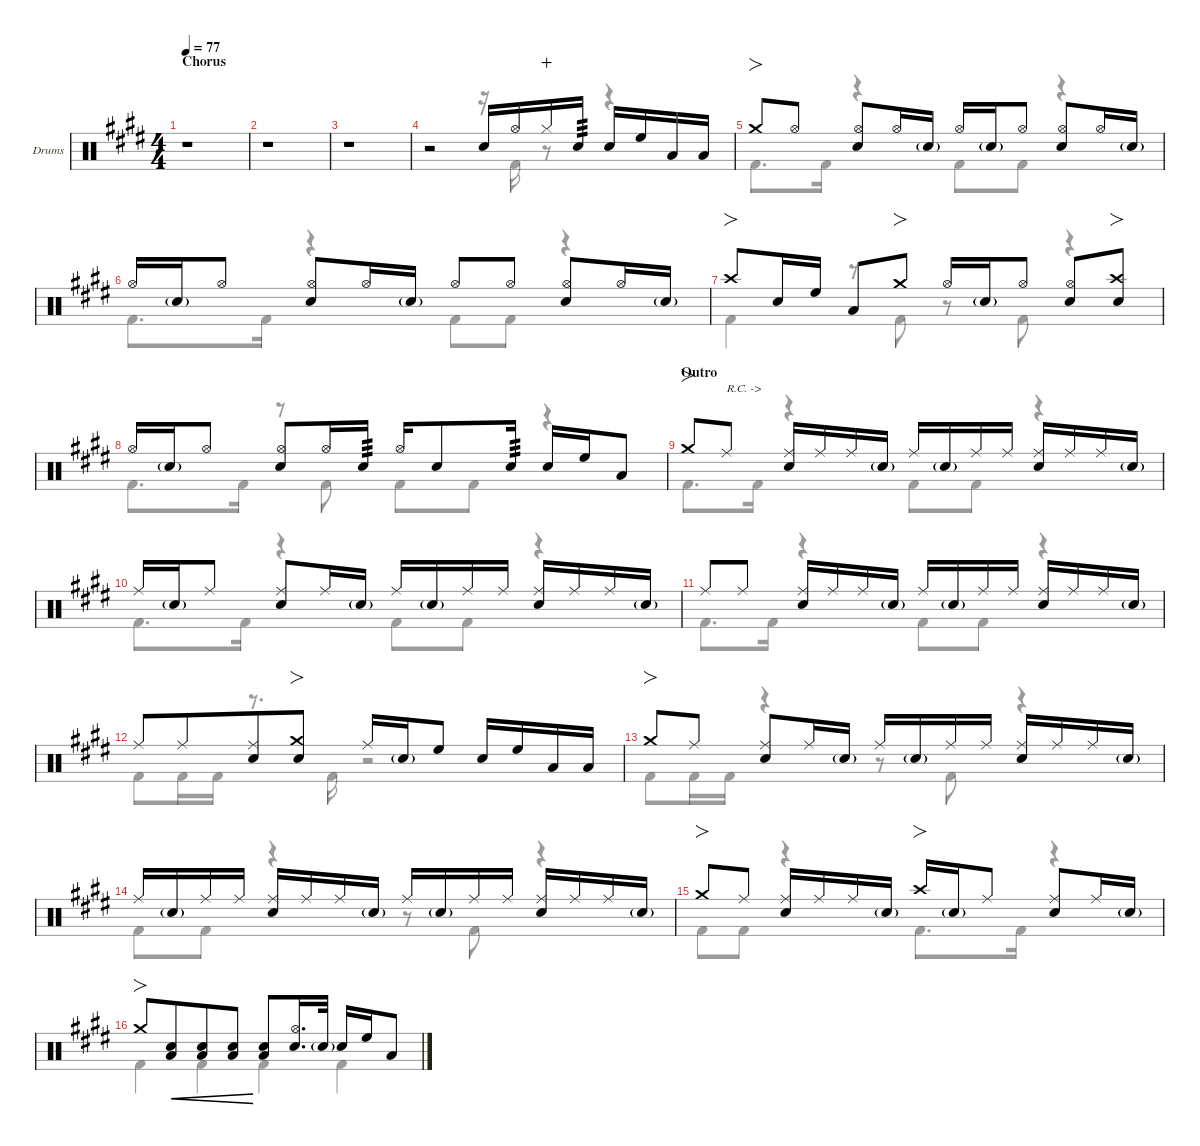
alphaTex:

\defaultSystemsLayout 4
\hideDynamics
\bracketExtendMode nobrackets
\firstSystemTrackNameOrientation horizontal
\track ("Drums" "Drums") {defaultSystemsLayout 4 instrument percussion}
\staff {score}
\articulation defaults
\voice
\ts (4 4)
\section ("" "Chorus")
\tempo 77
\clef neutral
\ks e
r.1{dy mp} |
r.1 |
r.1 |
r.2 "Snare (hit) 2"{acc forcenatural}.16{dy f} "Hi-Hat (open)"{acc forcenatural}.16 "Hi-Hat (closed)"{acc forcenatural}.16{dy mp wahc} "Snare (hit) 2"{acc forcenatural}.16{tp 3 dy mf} "Snare (hit) 2"{acc forcenatural}.16{dy f} "High Floor Tom (hit)"{acc forcenatural}.16 "Low Tom (hit)"{acc forcenatural}.16 "Low Tom (hit)"{acc forcenatural}.16 |
"Crash medium (hit)"{acc forcenatural}.8{fo} "Hi-Hat (open)"{acc forcenatural}.8{dy mf} ("Hi-Hat (open)"{acc forcenatural} "Snare (hit) 2"{acc forcenatural}).8{dy f} "Hi-Hat (open)"{acc forcenatural}.16{dy mf} "Snare (hit) 2"{g acc forcenatural}.16 "Hi-Hat (open)"{acc forcenatural}.16{dy f} "Snare (hit) 2"{g acc forcenatural}.16{dy mf} "Hi-Hat (open)"{acc forcenatural}.8 ("Hi-Hat (open)"{acc forcenatural} "Snare (hit) 2"{acc forcenatural}).8{dy f} "Hi-Hat (open)"{acc forcenatural}.16{dy mf} "Snare (hit) 2"{g acc forcenatural}.16 |
"Hi-Hat (open)"{acc forcenatural}.16{dy f} "Snare (hit) 2"{g acc forcenatural}.16{dy mf} "Hi-Hat (open)"{acc forcenatural}.8 ("Hi-Hat (open)"{acc forcenatural} "Snare (hit) 2"{acc forcenatural}).8{dy f} "Hi-Hat (open)"{acc forcenatural}.16{dy mf} "Snare (hit) 2"{g acc forcenatural}.16 "Hi-Hat (open)"{acc forcenatural}.8{dy f} "Hi-Hat (open)"{acc forcenatural}.8{dy mf beam split} ("Hi-Hat (open)"{acc forcenatural} "Snare (hit) 2"{acc forcenatural}).8{dy f} "Hi-Hat (open)"{acc forcenatural}.16{dy mf} "Snare (hit) 2"{g acc forcenatural}.16 |
"Crash high (hit)"{acc forcenatural}.8{fo dy f beam merge} "Snare (hit) 2"{acc forcenatural}.16 "High Floor Tom (hit)"{acc forcenatural}.16 "Low Tom (hit)"{acc forcenatural}.8 "Crash medium (hit)"{acc forcenatural}.8{fo} "Hi-Hat (open)"{acc forcenatural}.16 "Snare (hit) 2"{g acc forcenatural}.16{dy mf} "Hi-Hat (open)"{acc forcenatural}.8 ("Snare (hit) 2"{acc forcenatural} "Hi-Hat (open)"{acc forcenatural}).8{dy f} ("Crash high (hit)"{acc forcenatural} "Snare (hit) 2"{acc forcenatural}).8{fo} |
"Hi-Hat (open)"{acc forcenatural}.16 "Snare (hit) 2"{g acc forcenatural}.16{dy mf} "Hi-Hat (open)"{acc forcenatural}.8 ("Snare (hit) 2"{acc forcenatural} "Hi-Hat (open)"{acc forcenatural}).8{dy f} "Hi-Hat (open)"{acc forcenatural}.16 "Snare (hit) 2"{acc forcenatural}.16{tp 3 dy mf} "Hi-Hat (open)"{acc forcenatural}.16{dy f} "Snare (hit) 2"{acc forcenatural}.8 "Snare (hit) 2"{acc forcenatural}.16{tp 3 dy mf} "Snare (hit) 2"{acc forcenatural}.16{dy f} "High Floor Tom (hit)"{acc forcenatural}.16 "Low Tom (hit)"{acc forcenatural}.8 |
\section ("" "Outro")
"Crash medium (hit)"{acc forcenatural}.8{fo} "Ride (middle)"{acc forcenatural}.8{txt "R.C. ->" dy mf} ("Ride (middle)"{acc forcenatural} "Snare (hit) 2"{acc forcenatural}).16{dy f} "Ride (middle)"{acc forcenatural}.16{dy mf} "Ride (middle)"{acc forcenatural}.16 "Snare (hit) 2"{g acc forcenatural}.16 "Ride (middle)"{acc forcenatural}.16{dy f} "Snare (hit) 2"{g acc forcenatural}.16{dy mf} "Ride (middle)"{acc forcenatural}.16 "Ride (middle)"{acc forcenatural}.16 ("Ride (middle)"{acc forcenatural} "Snare (hit) 2"{acc forcenatural}).16{dy f} "Ride (middle)"{acc forcenatural}.16{dy mf} "Ride (middle)"{acc forcenatural}.16 "Snare (hit) 2"{g acc forcenatural}.16 |
"Ride (middle)"{acc forcenatural}.16{dy f} "Snare (hit) 2"{g acc forcenatural}.16{dy mf} "Ride (middle)"{acc forcenatural}.8 ("Ride (middle)"{acc forcenatural} "Snare (hit) 2"{acc forcenatural}).8{dy f} "Ride (middle)"{acc forcenatural}.16{dy mf} "Snare (hit) 2"{g acc forcenatural}.16 "Ride (middle)"{acc forcenatural}.16{dy f} "Snare (hit) 2"{g acc forcenatural}.16{dy mf} "Ride (middle)"{acc forcenatural}.16 "Ride (middle)"{acc forcenatural}.16 ("Ride (middle)"{acc forcenatural} "Snare (hit) 2"{acc forcenatural}).16{dy f} "Ride (middle)"{acc forcenatural}.16{dy mf} "Ride (middle)"{acc forcenatural}.16 "Snare (hit) 2"{g acc forcenatural}.16 |
"Ride (middle)"{acc forcenatural}.8{dy f beam merge} "Ride (middle)"{acc forcenatural}.8{dy mf beam split} ("Ride (middle)"{acc forcenatural} "Snare (hit) 2"{acc forcenatural}).16{dy f} "Ride (middle)"{acc forcenatural}.16{dy mf} "Ride (middle)"{acc forcenatural}.16 "Snare (hit) 2"{g acc forcenatural}.16 "Ride (middle)"{acc forcenatural}.16{dy f} "Snare (hit) 2"{g acc forcenatural}.16{dy mf} "Ride (middle)"{acc forcenatural}.16 "Ride (middle)"{acc forcenatural}.16 ("Ride (middle)"{acc forcenatural} "Snare (hit) 2"{acc forcenatural}).16{dy f} "Ride (middle)"{acc forcenatural}.16{dy mf} "Ride (middle)"{acc forcenatural}.16 "Snare (hit) 2"{g acc forcenatural}.16 |
"Ride (middle)"{acc forcenatural}.8{dy f beam merge} "Ride (middle)"{acc forcenatural}.8{dy mf beam merge} ("Ride (middle)"{acc forcenatural} "Snare (hit) 2"{acc forcenatural}).8{dy f beam merge} ("Snare (hit) 2"{acc forcenatural} "Crash medium (hit)"{acc forcenatural}).8{fo} "Ride (middle)"{acc forcenatural}.16 "Snare (hit) 2"{g acc forcenatural}.16{dy mf} "High Floor Tom (hit)"{acc forcenatural}.8{dy f} "Snare (hit) 2"{acc forcenatural}.16 "High Floor Tom (hit)"{acc forcenatural}.16 "Low Tom (hit)"{acc forcenatural}.16 "Low Tom (hit)"{acc forcenatural}.16 |
"Crash medium (hit)"{acc forcenatural}.8{fo} "Ride (middle)"{acc forcenatural}.8{beam split} ("Ride (middle)"{acc forcenatural} "Snare (hit) 2"{acc forcenatural}).8 "Ride (middle)"{acc forcenatural}.16{dy mf} "Snare (hit) 2"{g acc forcenatural}.16 "Ride (middle)"{acc forcenatural}.16{dy f} "Snare (hit) 2"{g acc forcenatural}.16{dy mf} "Ride (middle)"{acc forcenatural}.16 "Ride (middle)"{acc forcenatural}.16 ("Ride (middle)"{acc forcenatural} "Snare (hit) 2"{acc forcenatural}).16{dy f} "Ride (middle)"{acc forcenatural}.16{dy mf} "Ride (middle)"{acc forcenatural}.16 "Snare (hit) 2"{g acc forcenatural}.16 |
"Ride (middle)"{acc forcenatural}.16{dy f} "Snare (hit) 2"{g acc forcenatural}.16{dy mf} "Ride (middle)"{acc forcenatural}.16 "Ride (middle)"{acc forcenatural}.16 ("Ride (middle)"{acc forcenatural} "Snare (hit) 2"{acc forcenatural}).16{dy f} "Ride (middle)"{acc forcenatural}.16{dy mf} "Ride (middle)"{acc forcenatural}.16 "Snare (hit) 2"{g acc forcenatural}.16 "Ride (middle)"{acc forcenatural}.16{dy f} "Snare (hit) 2"{g acc forcenatural}.16{dy mf} "Ride (middle)"{acc forcenatural}.16 "Ride (middle)"{acc forcenatural}.16 ("Ride (middle)"{acc forcenatural} "Snare (hit) 2"{acc forcenatural}).16{dy f} "Ride (middle)"{acc forcenatural}.16{dy mf} "Ride (middle)"{acc forcenatural}.16 "Snare (hit) 2"{g acc forcenatural}.16 |
"Crash medium (hit)"{acc forcenatural}.8{fo dy f} "Ride (middle)"{acc forcenatural}.8{beam split} ("Ride (middle)"{acc forcenatural} "Snare (hit) 2"{acc forcenatural}).16 "Ride (middle)"{acc forcenatural}.16{dy mf} "Ride (middle)"{acc forcenatural}.16 "Snare (hit) 2"{g acc forcenatural}.16 "Crash high (hit)"{acc forcenatural}.16{fo dy f} "Snare (hit) 2"{g acc forcenatural}.16{dy mf} "Ride (middle)"{acc forcenatural}.8 ("Ride (middle)"{acc forcenatural} "Snare (hit) 2"{acc forcenatural}).8{dy f} "Ride (middle)"{acc forcenatural}.16{dy mf} "Snare (hit) 2"{g acc forcenatural}.16 |
"Crash medium (hit)"{acc forcenatural}.8{fo dy f beam merge} ("Snare (hit) 2"{acc forcenatural} "Low Tom (hit)"{acc forcenatural}).8{cre dy mp beam merge} ("Snare (hit) 2"{acc forcenatural} "Low Tom (hit)"{acc forcenatural}).8{cre dy mf beam merge} ("Snare (hit) 2"{acc forcenatural} "Low Tom (hit)"{acc forcenatural}).8{cre dy f} ("Snare (hit) 2"{acc forcenatural} "Low Tom (hit)"{acc forcenatural}).8 ("Snare (hit) 2"{acc forcenatural} "Hi-Hat (open)"{acc forcenatural}).16{d} "Snare (hit) 2"{g acc forcenatural}.32{dy mf} "Snare (hit) 2"{acc forcenatural}.16{dy f} "High Floor Tom (hit)"{acc forcenatural}.16 "Low Tom (hit)"{acc forcenatural}.8
\voice
\clef neutral
\ottava regular
\simile none
\ks e
r.1{dy f} |
r.1 |
r.1 |
r.2 r.16 "Kick (hit) 2"{acc forcenatural}.16 r.8 r.4 |
"Kick (hit) 2"{acc forcenatural}.8{d} "Kick (hit) 2"{acc forcenatural}.16 r.4 "Kick (hit) 2"{acc forcenatural}.8 "Kick (hit) 2"{acc forcenatural}.8 r.4 |
"Kick (hit) 2"{acc forcenatural}.8{d} "Kick (hit) 2"{acc forcenatural}.16 r.4 "Kick (hit) 2"{acc forcenatural}.8 "Kick (hit) 2"{acc forcenatural}.8 r.4 |
"Kick (hit) 2"{acc forcenatural}.4 r.8 "Kick (hit) 2"{acc forcenatural}.8 r.8 "Kick (hit) 2"{acc forcenatural}.8 r.4 |
"Kick (hit) 2"{acc forcenatural}.8{d} "Kick (hit) 2"{acc forcenatural}.16 r.8 "Kick (hit) 2"{acc forcenatural}.8 "Kick (hit) 2"{acc forcenatural}.8 "Kick (hit) 2"{acc forcenatural}.8 r.4 |
"Kick (hit) 2"{acc forcenatural}.8{d} "Kick (hit) 2"{acc forcenatural}.16 r.4 "Kick (hit) 2"{acc forcenatural}.8 "Kick (hit) 2"{acc forcenatural}.8 r.4 |
"Kick (hit) 2"{acc forcenatural}.8{d} "Kick (hit) 2"{acc forcenatural}.16 r.4 "Kick (hit) 2"{acc forcenatural}.8 "Kick (hit) 2"{acc forcenatural}.8 r.4 |
"Kick (hit) 2"{acc forcenatural}.8{d} "Kick (hit) 2"{acc forcenatural}.16 r.4 "Kick (hit) 2"{acc forcenatural}.8 "Kick (hit) 2"{acc forcenatural}.8 r.4 |
"Kick (hit) 2"{acc forcenatural}.8 "Kick (hit) 2"{acc forcenatural}.16 "Kick (hit) 2"{acc forcenatural}.16 r.8{d} "Kick (hit) 2"{acc forcenatural}.16 r.2 |
"Kick (hit) 2"{acc forcenatural}.8 "Kick (hit) 2"{acc forcenatural}.16 "Kick (hit) 2"{acc forcenatural}.16 r.4 r.8 "Kick (hit) 2"{acc forcenatural}.8 r.4 |
"Kick (hit) 2"{acc forcenatural}.8 "Kick (hit) 2"{acc forcenatural}.8 r.4 r.8 "Kick (hit) 2"{acc forcenatural}.8 r.4 |
"Kick (hit) 2"{acc forcenatural}.8 "Kick (hit) 2"{acc forcenatural}.8 r.4 "Kick (hit) 2"{acc forcenatural}.8{d} "Kick (hit) 2"{acc forcenatural}.16 r.4 |
"Kick (hit) 2"{acc forcenatural}.4 "Kick (hit) 2"{acc forcenatural}.4 "Kick (hit) 2"{acc forcenatural}.4 "Kick (hit) 2"{acc forcenatural}.4
